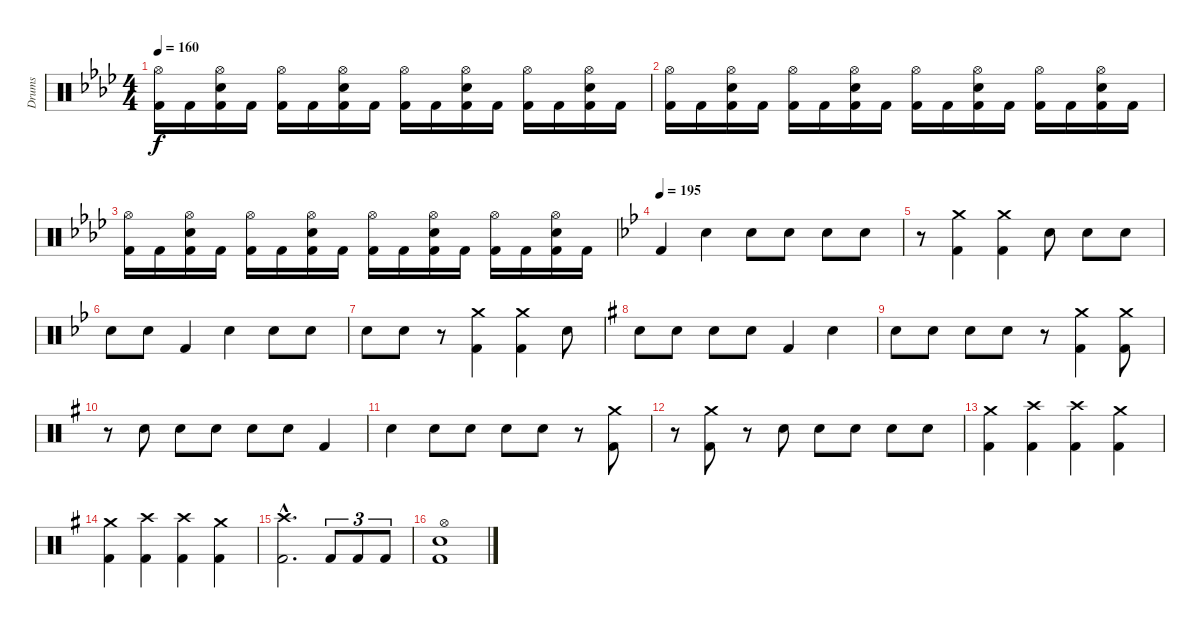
\track ("Drums" "Drums") {instrument percussion}
\staff {score}
\articulation defaults
\ts (4 4)
\tempo 160
\clef neutral
\ks fminor
("Kick (hit) 2" "Hi-Hat (open)").16{dy f} "Kick (hit) 2".16 ("Kick (hit) 2" "Electric Snare (hit)" "Hi-Hat (open)").16 "Kick (hit) 2".16 ("Kick (hit) 2" "Hi-Hat (open)").16 "Kick (hit) 2".16 ("Kick (hit) 2" "Electric Snare (hit)" "Hi-Hat (open)").16 "Kick (hit) 2".16 ("Kick (hit) 2" "Hi-Hat (open)").16 "Kick (hit) 2".16 ("Kick (hit) 2" "Electric Snare (hit)" "Hi-Hat (open)").16 "Kick (hit) 2".16 ("Kick (hit) 2" "Hi-Hat (open)").16 "Kick (hit) 2".16 ("Kick (hit) 2" "Electric Snare (hit)" "Hi-Hat (open)").16 "Kick (hit) 2".16 |
("Kick (hit) 2" "Hi-Hat (open)").16 "Kick (hit) 2".16 ("Kick (hit) 2" "Electric Snare (hit)" "Hi-Hat (open)").16 "Kick (hit) 2".16 ("Kick (hit) 2" "Hi-Hat (open)").16 "Kick (hit) 2".16 ("Kick (hit) 2" "Electric Snare (hit)" "Hi-Hat (open)").16 "Kick (hit) 2".16 ("Kick (hit) 2" "Hi-Hat (open)").16 "Kick (hit) 2".16 ("Kick (hit) 2" "Electric Snare (hit)" "Hi-Hat (open)").16 "Kick (hit) 2".16 ("Kick (hit) 2" "Hi-Hat (open)").16 "Kick (hit) 2".16 ("Kick (hit) 2" "Electric Snare (hit)" "Hi-Hat (open)").16 "Kick (hit) 2".16 |
("Kick (hit) 2" "Hi-Hat (open)").16 "Kick (hit) 2".16 ("Kick (hit) 2" "Electric Snare (hit)" "Hi-Hat (open)").16 "Kick (hit) 2".16 ("Kick (hit) 2" "Hi-Hat (open)").16 "Kick (hit) 2".16 ("Kick (hit) 2" "Electric Snare (hit)" "Hi-Hat (open)").16 "Kick (hit) 2".16 ("Kick (hit) 2" "Hi-Hat (open)").16 "Kick (hit) 2".16 ("Kick (hit) 2" "Electric Snare (hit)" "Hi-Hat (open)").16 "Kick (hit) 2".16 ("Kick (hit) 2" "Hi-Hat (open)").16 "Kick (hit) 2".16 ("Kick (hit) 2" "Electric Snare (hit)" "Hi-Hat (open)").16 "Kick (hit) 2".16 |
\section ("" "")
\tempo 195
\ks gminor "Kick (hit) 2".4 "Electric Snare (hit)".4 "Electric Snare (hit)".8 "Electric Snare (hit)".8 "Electric Snare (hit)".8 "Electric Snare (hit)".8
|
r.8 ("Kick (hit) 2" "Crash medium (hit)").4 ("Kick (hit) 2" "Crash medium (hit)").4 "Electric Snare (hit)".8 "Electric Snare (hit)".8 "Electric Snare (hit)".8 |
"Electric Snare (hit)".8 "Electric Snare (hit)".8 "Kick (hit) 2".4 "Electric Snare (hit)".4 "Electric Snare (hit)".8 "Electric Snare (hit)".8 |
"Electric Snare (hit)".8 "Electric Snare (hit)".8 r.8 ("Kick (hit) 2" "Crash medium (hit)").4 ("Kick (hit) 2" "Crash medium (hit)").4 "Electric Snare (hit)".8 |
\ks eminor "Electric Snare (hit)".8 "Electric Snare (hit)".8 "Electric Snare (hit)".8 "Electric Snare (hit)".8 "Kick (hit) 2".4 "Electric Snare (hit)".4
|
"Electric Snare (hit)".8 "Electric Snare (hit)".8 "Electric Snare (hit)".8 "Electric Snare (hit)".8 r.8 ("Kick (hit) 2" "Crash medium (hit)").4 ("Kick (hit) 2" "Crash medium (hit)").8 |
r.8 "Electric Snare (hit)".8 "Electric Snare (hit)".8 "Electric Snare (hit)".8 "Electric Snare (hit)".8 "Electric Snare (hit)".8 "Kick (hit) 2".4 |
"Electric Snare (hit)".4 "Electric Snare (hit)".8 "Electric Snare (hit)".8 "Electric Snare (hit)".8 "Electric Snare (hit)".8 r.8 ("Kick (hit) 2" "Crash medium (hit)").8 |
r.8 ("Kick (hit) 2" "Crash medium (hit)").8 r.8 "Electric Snare (hit)".8 "Electric Snare (hit)".8 "Electric Snare (hit)".8 "Electric Snare (hit)".8 "Electric Snare (hit)".8 |
("Kick (hit) 2" "Crash medium (hit)").4 ("Kick (hit) 2" "Crash high (hit)").4 ("Kick (hit) 2" "Crash high (hit)").4 ("Kick (hit) 2" "Crash medium (hit)").4 |
("Kick (hit) 2" "Crash medium (hit)").4 ("Kick (hit) 2" "Crash high (hit)").4 ("Kick (hit) 2" "Crash high (hit)").4 ("Kick (hit) 2" "Crash medium (hit)").4 |
("Kick (hit) 2"{hac} "Crash high (hit)"{hac}).2{d} "Kick (hit) 2".8{tu (3 2)} "Kick (hit) 2".8{tu (3 2)} "Kick (hit) 2".8{tu (3 2)} |
("Kick (hit) 2" "Snare (hit) 2" "Hi-Hat (open)").1
